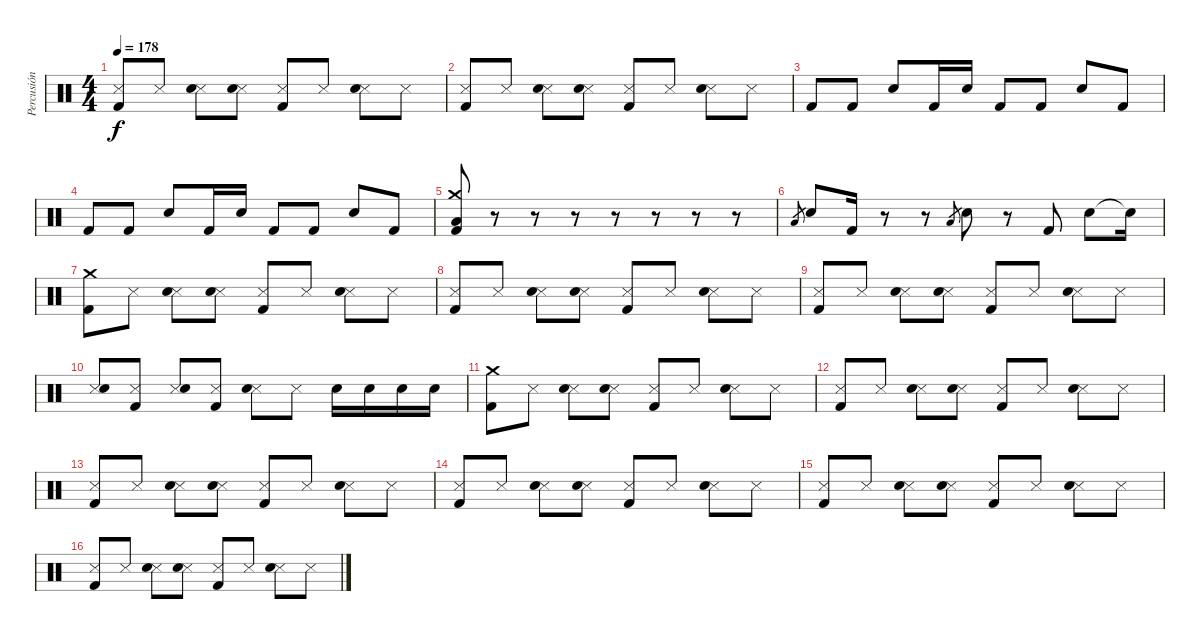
\track ("Percusión" "Percusión") {instrument percussion}
\staff {score}
\articulation defaults
\ts (4 4)
\tempo 178
\clef neutral
\ks c
("Snare (side stick) 3" "Kick (hit) 2").8{dy f} "Snare (side stick) 3".8 ("Snare (side stick) 3" "Electric Snare (hit)").8 ("Snare (side stick) 3" "Electric Snare (hit)").8 ("Snare (side stick) 3" "Kick (hit) 2").8 "Snare (side stick) 3".8 ("Snare (side stick) 3" "Electric Snare (hit)").8 "Snare (side stick) 3".8 |
("Snare (side stick) 3" "Kick (hit) 2").8 "Snare (side stick) 3".8 ("Snare (side stick) 3" "Electric Snare (hit)").8 ("Snare (side stick) 3" "Electric Snare (hit)").8 ("Snare (side stick) 3" "Kick (hit) 2").8 "Snare (side stick) 3".8 ("Snare (side stick) 3" "Electric Snare (hit)").8 "Snare (side stick) 3".8 |
"Kick (hit) 2".8 "Kick (hit) 2".8 "Electric Snare (hit)".8 "Kick (hit) 2".16 "Electric Snare (hit)".16 "Kick (hit) 2".8 "Kick (hit) 2".8 "Electric Snare (hit)".8 "Kick (hit) 2".8 |
"Kick (hit) 2".8 "Kick (hit) 2".8 "Electric Snare (hit)".8 "Kick (hit) 2".16 "Electric Snare (hit)".16 "Kick (hit) 2".8 "Kick (hit) 2".8 "Electric Snare (hit)".8 "Kick (hit) 2".8 |
("Crash medium (hit)" "Low Floor Tom (hit)" "Kick (hit) 2").8 r.8 r.8 r.8 r.8 r.8 r.8 r.8 |
"Low Floor Tom (hit)".8{gr} "Electric Snare (hit)".8 "Kick (hit) 2".16 r.8 r.8 "Low Floor Tom (hit)".8{gr} "Electric Snare (hit)".8 r.8 "Kick (hit) 2".8 "Electric Snare (hit)".8 "Snare (hit)"{t}.16 |
("Crash medium (hit)" "Kick (hit) 2").8 "Snare (side stick) 3".8 ("Snare (side stick) 3" "Electric Snare (hit)").8 ("Snare (side stick) 3" "Electric Snare (hit)").8 ("Snare (side stick) 3" "Kick (hit) 2").8 "Snare (side stick) 3".8 ("Snare (side stick) 3" "Electric Snare (hit)").8 "Snare (side stick) 3".8 |
("Snare (side stick) 3" "Kick (hit) 2").8 "Snare (side stick) 3".8 ("Snare (side stick) 3" "Electric Snare (hit)").8 ("Snare (side stick) 3" "Electric Snare (hit)").8 ("Snare (side stick) 3" "Kick (hit) 2").8 "Snare (side stick) 3".8 ("Snare (side stick) 3" "Electric Snare (hit)").8 "Snare (side stick) 3".8 |
("Snare (side stick) 3" "Kick (hit) 2").8 "Snare (side stick) 3".8 ("Snare (side stick) 3" "Electric Snare (hit)").8 ("Snare (side stick) 3" "Electric Snare (hit)").8 ("Snare (side stick) 3" "Kick (hit) 2").8 "Snare (side stick) 3".8 ("Snare (side stick) 3" "Electric Snare (hit)").8 "Snare (side stick) 3".8 |
("Snare (side stick) 3" "Electric Snare (hit)").8 ("Snare (side stick) 3" "Kick (hit) 2").8 ("Snare (side stick) 3" "Electric Snare (hit)").8 ("Snare (side stick) 3" "Kick (hit) 2").8 ("Snare (side stick) 3" "Electric Snare (hit)").8 "Snare (side stick) 3".8 "Electric Snare (hit)".16 "Electric Snare (hit)".16 "Electric Snare (hit)".16 "Electric Snare (hit)".16 |
("Crash medium (hit)" "Kick (hit) 2").8 "Snare (side stick) 3".8 ("Snare (side stick) 3" "Electric Snare (hit)").8 ("Snare (side stick) 3" "Electric Snare (hit)").8 ("Snare (side stick) 3" "Kick (hit) 2").8 "Snare (side stick) 3".8 ("Snare (side stick) 3" "Electric Snare (hit)").8 "Snare (side stick) 3".8 |
("Snare (side stick) 3" "Kick (hit) 2").8 "Snare (side stick) 3".8 ("Snare (side stick) 3" "Electric Snare (hit)").8 ("Snare (side stick) 3" "Electric Snare (hit)").8 ("Snare (side stick) 3" "Kick (hit) 2").8 "Snare (side stick) 3".8 ("Snare (side stick) 3" "Electric Snare (hit)").8 "Snare (side stick) 3".8 |
("Snare (side stick) 3" "Kick (hit) 2").8 "Snare (side stick) 3".8 ("Snare (side stick) 3" "Electric Snare (hit)").8 ("Snare (side stick) 3" "Electric Snare (hit)").8 ("Snare (side stick) 3" "Kick (hit) 2").8 "Snare (side stick) 3".8 ("Snare (side stick) 3" "Electric Snare (hit)").8 "Snare (side stick) 3".8 |
("Snare (side stick) 3" "Kick (hit) 2").8 "Snare (side stick) 3".8 ("Snare (side stick) 3" "Electric Snare (hit)").8 ("Snare (side stick) 3" "Electric Snare (hit)").8 ("Snare (side stick) 3" "Kick (hit) 2").8 "Snare (side stick) 3".8 ("Snare (side stick) 3" "Electric Snare (hit)").8 "Snare (side stick) 3".8 |
("Snare (side stick) 3" "Kick (hit) 2").8 "Snare (side stick) 3".8 ("Snare (side stick) 3" "Electric Snare (hit)").8 ("Snare (side stick) 3" "Electric Snare (hit)").8 ("Snare (side stick) 3" "Kick (hit) 2").8 "Snare (side stick) 3".8 ("Snare (side stick) 3" "Electric Snare (hit)").8 "Snare (side stick) 3".8 |
("Snare (side stick) 3" "Kick (hit) 2").8 "Snare (side stick) 3".8 ("Snare (side stick) 3" "Electric Snare (hit)").8 ("Snare (side stick) 3" "Electric Snare (hit)").8 ("Snare (side stick) 3" "Kick (hit) 2").8 "Snare (side stick) 3".8 ("Snare (side stick) 3" "Electric Snare (hit)").8 "Snare (side stick) 3".8
